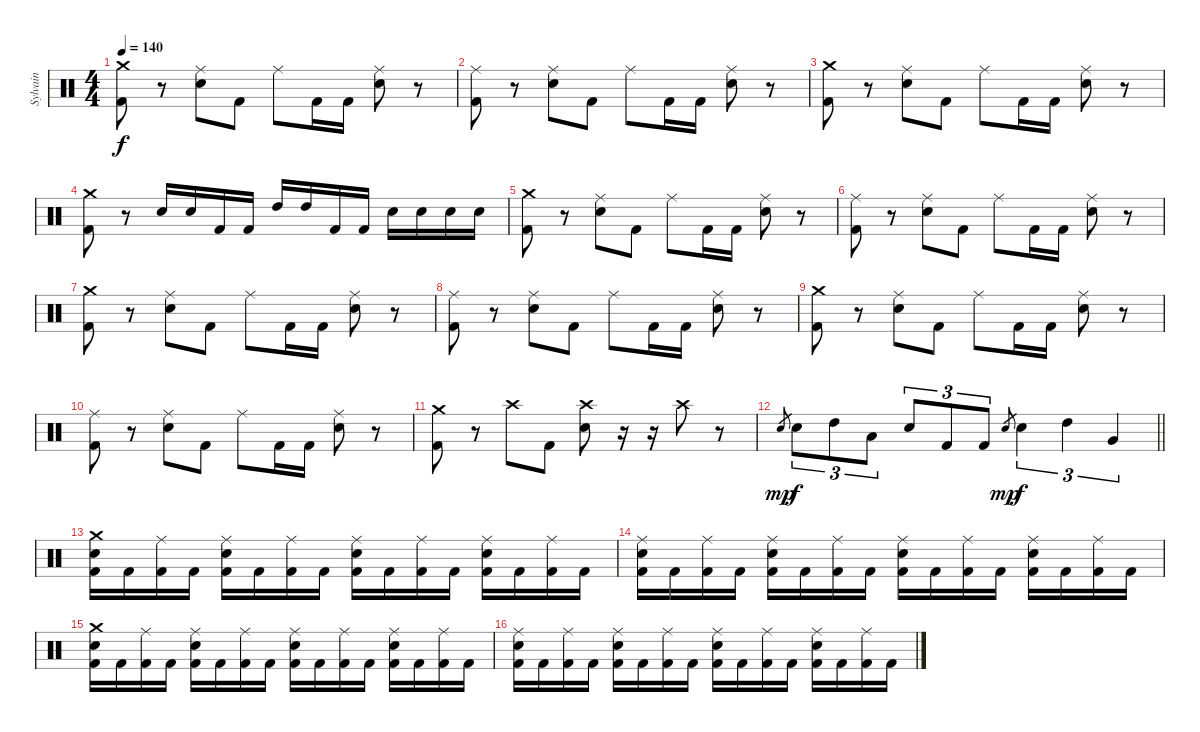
\track ("Sylvain" "Sylvain") {instrument percussion}
\staff {score}
\articulation defaults
\ts (4 4)
\tempo 140
\clef neutral
\ks c
("Crash medium (hit)" "Kick (hit) 2").8{dy f} r.8 ("Ride (middle)" "Snare (hit) 2").8 "Kick (hit) 2".8 "Ride (middle)".8 "Kick (hit) 2".16 "Kick (hit) 2".16 ("Ride (middle)" "Snare (hit) 2").8 r.8 |
("Ride (middle)" "Kick (hit) 2").8 r.8 ("Ride (middle)" "Snare (hit) 2").8 "Kick (hit) 2".8 "Ride (middle)".8 "Kick (hit) 2".16 "Kick (hit) 2".16 ("Ride (middle)" "Snare (hit) 2").8 r.8 |
("Crash medium (hit)" "Kick (hit) 2").8 r.8 ("Ride (middle)" "Snare (hit) 2").8 "Kick (hit) 2".8 "Ride (middle)".8 "Kick (hit) 2".16 "Kick (hit) 2".16 ("Ride (middle)" "Snare (hit) 2").8 r.8 |
("Crash medium (hit)" "Kick (hit) 2").8 r.8 "Snare (hit) 2".16 "Snare (hit) 2".16 "Kick (hit) 2".16 "Kick (hit) 2".16 "High Tom (hit)".16 "High Tom (hit)".16 "Kick (hit) 2".16 "Kick (hit) 2".16 "Snare (hit) 2".16 "Snare (hit) 2".16 "Snare (hit) 2".16 "Snare (hit) 2".16 |
("Crash medium (hit)" "Kick (hit) 2").8 r.8 ("Ride (middle)" "Snare (hit) 2").8 "Kick (hit) 2".8 "Ride (middle)".8 "Kick (hit) 2".16 "Kick (hit) 2".16 ("Ride (middle)" "Snare (hit) 2").8 r.8 |
("Ride (middle)" "Kick (hit) 2").8 r.8 ("Ride (middle)" "Snare (hit) 2").8 "Kick (hit) 2".8 "Ride (middle)".8 "Kick (hit) 2".16 "Kick (hit) 2".16 ("Ride (middle)" "Snare (hit) 2").8 r.8 |
("Crash medium (hit)" "Kick (hit) 2").8 r.8 ("Ride (middle)" "Snare (hit) 2").8 "Kick (hit) 2".8 "Ride (middle)".8 "Kick (hit) 2".16 "Kick (hit) 2".16 ("Ride (middle)" "Snare (hit) 2").8 r.8 |
("Ride (middle)" "Kick (hit) 2").8 r.8 ("Ride (middle)" "Snare (hit) 2").8 "Kick (hit) 2".8 "Ride (middle)".8 "Kick (hit) 2".16 "Kick (hit) 2".16 ("Ride (middle)" "Snare (hit) 2").8 r.8 |
("Crash medium (hit)" "Kick (hit) 2").8 r.8 ("Ride (middle)" "Snare (hit) 2").8 "Kick (hit) 2".8 "Ride (middle)".8 "Kick (hit) 2".16 "Kick (hit) 2".16 ("Ride (middle)" "Snare (hit) 2").8 r.8 |
("Ride (middle)" "Kick (hit) 2").8 r.8 ("Ride (middle)" "Snare (hit) 2").8 "Kick (hit) 2".8 "Ride (middle)".8 "Kick (hit) 2".16 "Kick (hit) 2".16 ("Ride (middle)" "Snare (hit) 2").8 r.8 |
("Crash medium (hit)" "Kick (hit) 2").8 r.8 "Crash high (hit)".8 "Kick (hit) 2".8 ("Crash high (hit)" "Snare (hit) 2").8 r.16 r.16 "Crash high (hit)".8 r.8 |
\barLineRight lightlight "Snare (hit) 2".8{gr dy mp} "Snare (hit) 2".8{tu (3 2) dy f} "High Tom (hit)".8{tu (3 2)} "Low Tom (hit)".8{tu (3 2)} "Snare (hit) 2".8{tu (3 2)} "Kick (hit) 2".8{tu (3 2)} "Kick (hit) 2".8{tu (3 2)} "Snare (hit) 2".8{gr dy mp} "Snare (hit) 2".4{tu (3 2) dy f} "High Tom (hit)".4{tu (3 2)} "Very Low Tom (hit)".4{tu (3 2)}
|
("Crash medium (hit)" "Snare (hit) 2" "Kick (hit) 2").16 "Kick (hit) 2".16 ("Ride (middle)" "Kick (hit) 2").16 "Kick (hit) 2".16 ("Ride (middle)" "Snare (hit) 2" "Kick (hit) 2").16 "Kick (hit) 2".16 ("Ride (middle)" "Kick (hit) 2").16 "Kick (hit) 2".16 ("Ride (middle)" "Snare (hit) 2" "Kick (hit) 2").16 "Kick (hit) 2".16 ("Ride (middle)" "Kick (hit) 2").16 "Kick (hit) 2".16 ("Ride (middle)" "Snare (hit) 2" "Kick (hit) 2").16 "Kick (hit) 2".16 ("Ride (middle)" "Kick (hit) 2").16 "Kick (hit) 2".16 |
("Ride (middle)" "Snare (hit) 2" "Kick (hit) 2").16 "Kick (hit) 2".16 ("Ride (middle)" "Kick (hit) 2").16 "Kick (hit) 2".16 ("Ride (middle)" "Snare (hit) 2" "Kick (hit) 2").16 "Kick (hit) 2".16 ("Ride (middle)" "Kick (hit) 2").16 "Kick (hit) 2".16 ("Ride (middle)" "Snare (hit) 2" "Kick (hit) 2").16 "Kick (hit) 2".16 ("Ride (middle)" "Kick (hit) 2").16 "Kick (hit) 2".16 ("Ride (middle)" "Snare (hit) 2" "Kick (hit) 2").16 "Kick (hit) 2".16 ("Ride (middle)" "Kick (hit) 2").16 "Kick (hit) 2".16 |
("Crash medium (hit)" "Snare (hit) 2" "Kick (hit) 2").16 "Kick (hit) 2".16 ("Ride (middle)" "Kick (hit) 2").16 "Kick (hit) 2".16 ("Ride (middle)" "Snare (hit) 2" "Kick (hit) 2").16 "Kick (hit) 2".16 ("Ride (middle)" "Kick (hit) 2").16 "Kick (hit) 2".16 ("Ride (middle)" "Snare (hit) 2" "Kick (hit) 2").16 "Kick (hit) 2".16 ("Ride (middle)" "Kick (hit) 2").16 "Kick (hit) 2".16 ("Ride (middle)" "Snare (hit) 2" "Kick (hit) 2").16 "Kick (hit) 2".16 ("Ride (middle)" "Kick (hit) 2").16 "Kick (hit) 2".16 |
("Ride (middle)" "Snare (hit) 2" "Kick (hit) 2").16 "Kick (hit) 2".16 ("Ride (middle)" "Kick (hit) 2").16 "Kick (hit) 2".16 ("Ride (middle)" "Snare (hit) 2" "Kick (hit) 2").16 "Kick (hit) 2".16 ("Ride (middle)" "Kick (hit) 2").16 "Kick (hit) 2".16 ("Ride (middle)" "Snare (hit) 2" "Kick (hit) 2").16 "Kick (hit) 2".16 ("Ride (middle)" "Kick (hit) 2").16 "Kick (hit) 2".16 ("Ride (middle)" "Snare (hit) 2" "Kick (hit) 2").16 "Kick (hit) 2".16 ("Ride (middle)" "Kick (hit) 2").16 "Kick (hit) 2".16
